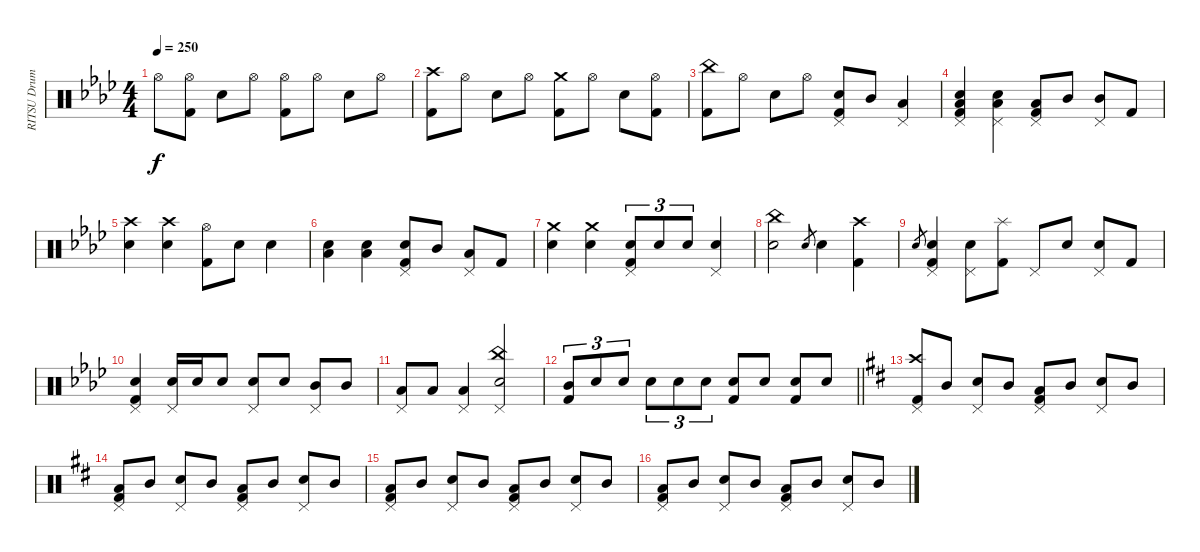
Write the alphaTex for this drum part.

\track ("RITSU Drums" "RITSU Drum") {instrument percussion}
\staff {score}
\articulation defaults
\ts (4 4)
\tempo 250
\clef neutral
\ks ab "Hi-Hat (open)".8{dy f}
("Hi-Hat (open)" "Kick (hit) 2").8 "Electric Snare (hit)".8 "Hi-Hat (open)".8 ("Hi-Hat (open)" "Kick (hit) 2").8 "Hi-Hat (open)".8 "Electric Snare (hit)".8 "Hi-Hat (open)".8 |
("Crash high (hit)" "Kick (hit) 2").8 "Hi-Hat (open)".8 "Electric Snare (hit)".8 "Hi-Hat (open)".8 ("Crash medium (hit)" "Kick (hit) 2").8 "Hi-Hat (open)".8 "Electric Snare (hit)".8 ("Hi-Hat (open)" "Kick (hit) 2").8 |
("China (hit)" "Kick (hit) 2").8 "Hi-Hat (open)".8 "Electric Snare (hit)".8 "Hi-Hat (open)".8 ("Pedal Hi-Hat (hit)" "Electric Snare (hit)" "Kick (hit) 2").8 "Mid Tom (hit)".8 ("Pedal Hi-Hat (hit)" "Low Floor Tom (hit)").4 |
("Pedal Hi-Hat (hit)" "Electric Snare (hit)" "Low Floor Tom (hit)" "Kick (hit) 2").4 ("Pedal Hi-Hat (hit)" "Electric Snare (hit)" "Low Floor Tom (hit)").4 ("Pedal Hi-Hat (hit)" "Low Floor Tom (hit)" "Kick (hit) 2").8 "Mid Tom (hit)".8 ("Pedal Hi-Hat (hit)" "Mid Tom (hit)").8 "Kick (hit) 2".8 |
("Crash high (hit)" "Electric Snare (hit)").4 ("Crash high (hit)" "Electric Snare (hit)").4 ("Hi-Hat (open)" "Kick (hit) 2").8 "Electric Snare (hit)".8 "Electric Snare (hit)".4 |
("Electric Snare (hit)" "Low Floor Tom (hit)").4 ("Electric Snare (hit)" "Low Floor Tom (hit)").4 ("Pedal Hi-Hat (hit)" "Electric Snare (hit)" "Kick (hit) 2").8 "Mid Tom (hit)".8 ("Pedal Hi-Hat (hit)" "Low Floor Tom (hit)").8 "Kick (hit) 2".8 |
("Crash medium (hit)" "Electric Snare (hit)").4 ("Crash medium (hit)" "Electric Snare (hit)").4 ("Pedal Hi-Hat (hit)" "Electric Snare (hit)" "Kick (hit) 2").8{tu (3 2)} "Electric Snare (hit)".8{tu (3 2)} "Electric Snare (hit)".8{tu (3 2)} ("Pedal Hi-Hat (hit)" "Electric Snare (hit)").4 |
("China (hit)" "Electric Snare (hit)").2 "Electric Snare (hit)".8{gr} "Electric Snare (hit)".4 ("Crash high (hit)" "Kick (hit) 2").4 |
"Electric Snare (hit)".8{gr} ("Pedal Hi-Hat (hit)" "Electric Snare (hit)" "Kick (hit) 2").4 ("Pedal Hi-Hat (hit)" "Electric Snare (hit)").8 ("Splash (hit)" "Kick (hit) 2").8 "Pedal Hi-Hat (hit)".8 "Electric Snare (hit)".8 ("Pedal Hi-Hat (hit)" "Electric Snare (hit)").8 "Kick (hit) 2".8 |
("Pedal Hi-Hat (hit)" "Electric Snare (hit)" "Kick (hit) 2").4 ("Pedal Hi-Hat (hit)" "Electric Snare (hit)").16 "Electric Snare (hit)".16 "Electric Snare (hit)".8 ("Pedal Hi-Hat (hit)" "Electric Snare (hit)").8 "Electric Snare (hit)".8 ("Pedal Hi-Hat (hit)" "Mid Tom (hit)").8 "Mid Tom (hit)".8 |
("Pedal Hi-Hat (hit)" "Low Tom (hit)").8 "Low Tom (hit)".8 ("Pedal Hi-Hat (hit)" "Low Tom (hit)").4 ("China (hit)" "Pedal Hi-Hat (hit)" "Electric Snare (hit)").2 |
\barLineRight lightlight
("Mid Tom (hit)" "Kick (hit) 2").8{tu (3 2)} "Electric Snare (hit)".8{tu (3 2)} "Electric Snare (hit)".8{tu (3 2)} "Electric Snare (hit)".8{tu (3 2)} "Electric Snare (hit)".8{tu (3 2)} "Electric Snare (hit)".8{tu (3 2)} ("Electric Snare (hit)" "Kick (hit) 2").8 "Electric Snare (hit)".8 ("Electric Snare (hit)" "Kick (hit) 2").8 "Electric Snare (hit)".8 |
\ks d
("Crash high (hit)" "Pedal Hi-Hat (hit)" "Kick (hit) 2").8 "Mid Tom (hit)".8 ("Pedal Hi-Hat (hit)" "Electric Snare (hit)").8 "Mid Tom (hit)".8 ("Pedal Hi-Hat (hit)" "Low Floor Tom (hit)" "Kick (hit) 2").8 "Mid Tom (hit)".8 ("Pedal Hi-Hat (hit)" "Electric Snare (hit)").8 "Mid Tom (hit)".8 |
("Pedal Hi-Hat (hit)" "Low Floor Tom (hit)" "Kick (hit) 2").8 "Mid Tom (hit)".8 ("Pedal Hi-Hat (hit)" "Electric Snare (hit)").8 "Mid Tom (hit)".8 ("Pedal Hi-Hat (hit)" "Low Floor Tom (hit)" "Kick (hit) 2").8 "Mid Tom (hit)".8 ("Pedal Hi-Hat (hit)" "Electric Snare (hit)").8 "Mid Tom (hit)".8 |
("Pedal Hi-Hat (hit)" "Low Floor Tom (hit)" "Kick (hit) 2").8 "Mid Tom (hit)".8 ("Pedal Hi-Hat (hit)" "Electric Snare (hit)").8 "Mid Tom (hit)".8 ("Pedal Hi-Hat (hit)" "Low Floor Tom (hit)" "Kick (hit) 2").8 "Mid Tom (hit)".8 ("Pedal Hi-Hat (hit)" "Electric Snare (hit)").8 "Mid Tom (hit)".8 |
("Pedal Hi-Hat (hit)" "Low Floor Tom (hit)" "Kick (hit) 2").8 "Mid Tom (hit)".8 ("Pedal Hi-Hat (hit)" "Electric Snare (hit)").8 "Mid Tom (hit)".8 ("Pedal Hi-Hat (hit)" "Low Floor Tom (hit)" "Kick (hit) 2").8 "Mid Tom (hit)".8 ("Pedal Hi-Hat (hit)" "Electric Snare (hit)").8 "Mid Tom (hit)".8
